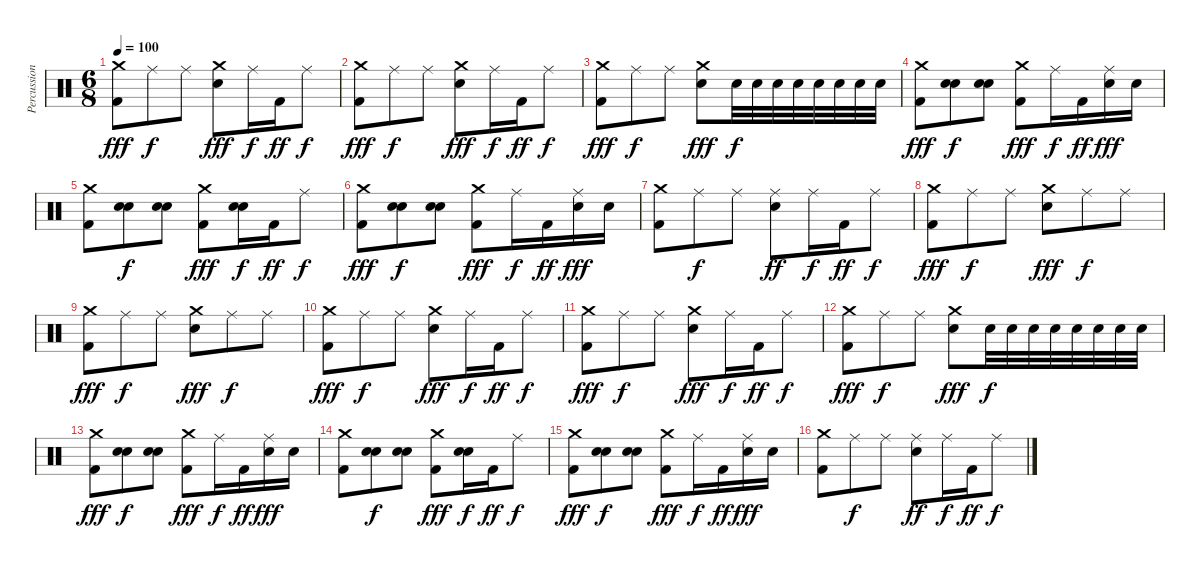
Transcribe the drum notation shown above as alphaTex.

\track ("Percussion" "Percussion") {instrument percussion}
\staff {score}
\articulation defaults
\ts (6 8)
\tempo 100
\clef neutral
\ks c
("Kick (hit) 2" "Crash medium (hit)").8{dy fff} "Ride (middle)".8{dy f} "Ride (middle)".8 ("Electric Snare (hit)" "Crash medium (hit)").8{dy fff} "Ride (middle)".16{dy f} "Kick (hit) 2".16{dy ff} "Ride (middle)".8{dy f} |
("Kick (hit) 2" "Crash medium (hit)").8{dy fff} "Ride (middle)".8{dy f} "Ride (middle)".8 ("Electric Snare (hit)" "Crash medium (hit)").8{dy fff} "Ride (middle)".16{dy f} "Kick (hit) 2".16{dy ff} "Ride (middle)".8{dy f} |
("Kick (hit) 2" "Crash medium (hit)").8{dy fff} "Ride (middle)".8{dy f} "Ride (middle)".8 ("Electric Snare (hit)" "Crash medium (hit)").8{dy fff} "Electric Snare (hit)".32{dy f} "Electric Snare (hit)".32 "Electric Snare (hit)".32 "Electric Snare (hit)".32 "Electric Snare (hit)".32 "Electric Snare (hit)".32 "Electric Snare (hit)".32 "Electric Snare (hit)".32 |
("Kick (hit) 2" "Crash medium (hit)").8{dy fff} ("Electric Snare (hit)" "Electric Snare (hit)").8{dy f} ("Electric Snare (hit)" "Electric Snare (hit)").8 ("Kick (hit) 2" "Crash medium (hit)").8{dy fff} "Ride (middle)".16{dy f} "Kick (hit) 2".16{dy ff} ("Ride (middle)" "Electric Snare (hit)").16{dy fff} "Electric Snare (hit)".16 |
("Kick (hit) 2" "Crash medium (hit)").8 ("Electric Snare (hit)" "Electric Snare (hit)").8{dy f} ("Electric Snare (hit)" "Electric Snare (hit)").8 ("Kick (hit) 2" "Crash medium (hit)").8{dy fff} ("Electric Snare (hit)" "Electric Snare (hit)").16{dy f} "Kick (hit) 2".16{dy ff} "Ride (middle)".8{dy f} |
("Kick (hit) 2" "Crash medium (hit)").8{dy fff} ("Electric Snare (hit)" "Electric Snare (hit)").8{dy f} ("Electric Snare (hit)" "Electric Snare (hit)").8 ("Kick (hit) 2" "Crash medium (hit)").8{dy fff} "Ride (middle)".16{dy f} "Kick (hit) 2".16{dy ff} ("Ride (middle)" "Electric Snare (hit)").16{dy fff} "Electric Snare (hit)".16 |
("Kick (hit) 2" "Crash medium (hit)").8 "Ride (middle)".8{dy f} "Ride (middle)".8 ("Electric Snare (hit)" "Ride (middle)").8{dy ff} "Ride (middle)".16{dy f} "Kick (hit) 2".16{dy ff} "Ride (middle)".8{dy f} |
("Kick (hit) 2" "Crash medium (hit)").8{dy fff} "Ride (middle)".8{dy f} "Ride (middle)".8 ("Electric Snare (hit)" "Crash medium (hit)").8{dy fff} "Ride (middle)".8{dy f} "Ride (middle)".8 |
("Kick (hit) 2" "Crash medium (hit)").8{dy fff} "Ride (middle)".8{dy f} "Ride (middle)".8 ("Electric Snare (hit)" "Crash medium (hit)").8{dy fff} "Ride (middle)".8{dy f} "Ride (middle)".8 |
("Kick (hit) 2" "Crash medium (hit)").8{dy fff} "Ride (middle)".8{dy f} "Ride (middle)".8 ("Electric Snare (hit)" "Crash medium (hit)").8{dy fff} "Ride (middle)".16{dy f} "Kick (hit) 2".16{dy ff} "Ride (middle)".8{dy f} |
("Kick (hit) 2" "Crash medium (hit)").8{dy fff} "Ride (middle)".8{dy f} "Ride (middle)".8 ("Electric Snare (hit)" "Crash medium (hit)").8{dy fff} "Ride (middle)".16{dy f} "Kick (hit) 2".16{dy ff} "Ride (middle)".8{dy f} |
("Kick (hit) 2" "Crash medium (hit)").8{dy fff} "Ride (middle)".8{dy f} "Ride (middle)".8 ("Electric Snare (hit)" "Crash medium (hit)").8{dy fff} "Electric Snare (hit)".32{dy f} "Electric Snare (hit)".32 "Electric Snare (hit)".32 "Electric Snare (hit)".32 "Electric Snare (hit)".32 "Electric Snare (hit)".32 "Electric Snare (hit)".32 "Electric Snare (hit)".32 |
("Kick (hit) 2" "Crash medium (hit)").8{dy fff} ("Electric Snare (hit)" "Electric Snare (hit)").8{dy f} ("Electric Snare (hit)" "Electric Snare (hit)").8 ("Kick (hit) 2" "Crash medium (hit)").8{dy fff} "Ride (middle)".16{dy f} "Kick (hit) 2".16{dy ff} ("Ride (middle)" "Electric Snare (hit)").16{dy fff} "Electric Snare (hit)".16 |
("Kick (hit) 2" "Crash medium (hit)").8 ("Electric Snare (hit)" "Electric Snare (hit)").8{dy f} ("Electric Snare (hit)" "Electric Snare (hit)").8 ("Kick (hit) 2" "Crash medium (hit)").8{dy fff} ("Electric Snare (hit)" "Electric Snare (hit)").16{dy f} "Kick (hit) 2".16{dy ff} "Ride (middle)".8{dy f} |
("Kick (hit) 2" "Crash medium (hit)").8{dy fff} ("Electric Snare (hit)" "Electric Snare (hit)").8{dy f} ("Electric Snare (hit)" "Electric Snare (hit)").8 ("Kick (hit) 2" "Crash medium (hit)").8{dy fff} "Ride (middle)".16{dy f} "Kick (hit) 2".16{dy ff} ("Ride (middle)" "Electric Snare (hit)").16{dy fff} "Electric Snare (hit)".16 |
("Kick (hit) 2" "Crash medium (hit)").8 "Ride (middle)".8{dy f} "Ride (middle)".8 ("Electric Snare (hit)" "Ride (middle)").8{dy ff} "Ride (middle)".16{dy f} "Kick (hit) 2".16{dy ff} "Ride (middle)".8{dy f}
